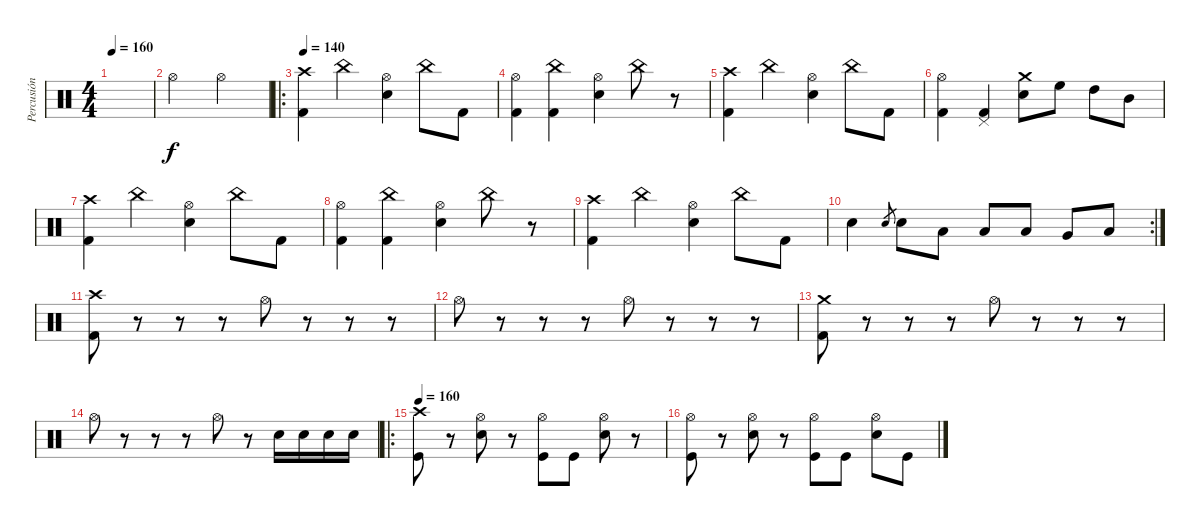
\track ("Percusión" "Percusión") {instrument percussion}
\staff {score}
\articulation defaults
\ts (4 4)
\tempo 160
\clef neutral
\ks c
|
"Hi-Hat (open)".2 "Hi-Hat (open)".2 |
\ro
\tempo 140
("Crash high (hit)" "Kick (hit) 2").4 "China (hit)".4 ("Hi-Hat (open)" "Electric Snare (hit)").4 "China (hit)".8 "Kick (hit) 2".8 |
("Hi-Hat (open)" "Kick (hit) 2").4 ("China (hit)" "Kick (hit) 2").4 ("Hi-Hat (open)" "Electric Snare (hit)").4 "China (hit)".8 r.8 |
("Crash high (hit)" "Kick (hit) 2").4 "China (hit)".4 ("Hi-Hat (open)" "Electric Snare (hit)").4 "China (hit)".8 "Kick (hit) 2".8 |
("Hi-Hat (open)" "Kick (hit) 2").4 ("Pedal Hi-Hat (hit)" "Kick (hit) 2").4 ("Crash medium (hit)" "Electric Snare (hit)").8 "High Floor Tom (hit)".8 "High Tom (hit)".8 "Mid Tom (hit)".8 |
("Crash high (hit)" "Kick (hit) 2").4 "China (hit)".4 ("Hi-Hat (open)" "Electric Snare (hit)").4 "China (hit)".8 "Kick (hit) 2".8 |
("Hi-Hat (open)" "Kick (hit) 2").4 ("China (hit)" "Kick (hit) 2").4 ("Hi-Hat (open)" "Electric Snare (hit)").4 "China (hit)".8 r.8 |
("Crash high (hit)" "Kick (hit) 2").4 "China (hit)".4 ("Hi-Hat (open)" "Electric Snare (hit)").4 "China (hit)".8 "Kick (hit) 2".8 |
\rc 2 "Electric Snare (hit)".4 "Electric Snare (hit)".8{gr} "Electric Snare (hit)".8 "Low Tom (hit)".8 "Low Tom (hit)".8 "Low Tom (hit)".8 "Very Low Tom (hit)".8 "Low Floor Tom (hit)".8
|
("Crash high (hit)" "Kick (hit) 2").8 r.8 r.8 r.8 "Hi-Hat (open)".8 r.8 r.8 r.8 |
"Hi-Hat (open)".8 r.8 r.8 r.8 "Hi-Hat (open)".8 r.8 r.8 r.8 |
("Crash medium (hit)" "Kick (hit) 2").8 r.8 r.8 r.8 "Hi-Hat (open)".8 r.8 r.8 r.8 |
"Hi-Hat (open)".8 r.8 r.8 r.8 "Hi-Hat (open)".8 r.8 "Electric Snare (hit)".16 "Electric Snare (hit)".16 "Electric Snare (hit)".16 "Electric Snare (hit)".16 |
\ro
\tempo 160
("Crash high (hit)" "Kick (hit)").8 r.8 ("Hi-Hat (open)" "Electric Snare (hit)").8 r.8 ("Hi-Hat (open)" "Kick (hit)").8 "Kick (hit)".8 ("Hi-Hat (open)" "Electric Snare (hit)").8 r.8 |
("Hi-Hat (open)" "Kick (hit)").8 r.8 ("Hi-Hat (open)" "Electric Snare (hit)").8 r.8 ("Hi-Hat (open)" "Kick (hit)").8 "Kick (hit)".8 ("Hi-Hat (open)" "Electric Snare (hit)").8 "Kick (hit)".8
